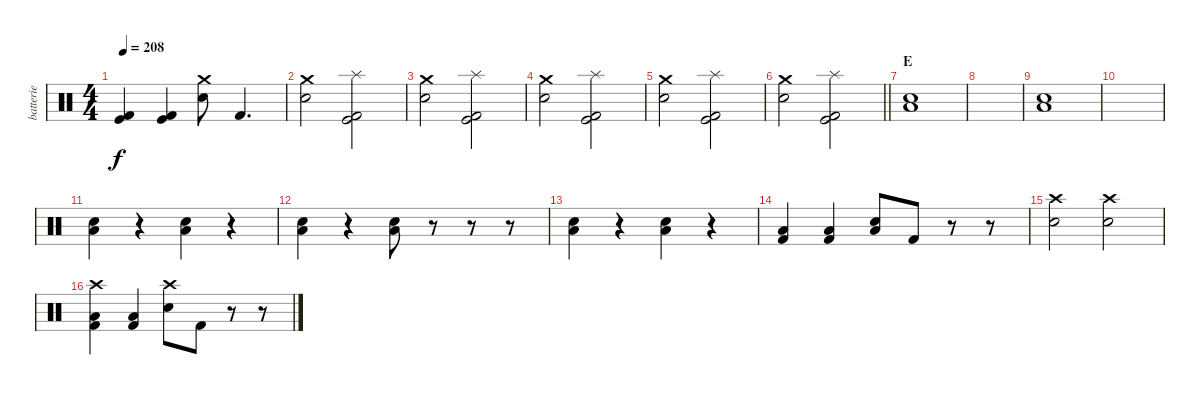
\track ("batterie" "batterie") {instrument percussion}
\staff {score}
\articulation defaults
\ts (4 4)
\tempo 208
\clef neutral
\ks c
("Kick (hit)" "Kick (hit) 2").4{dy f} ("Kick (hit)" "Kick (hit) 2").4 ("Crash medium (hit)" "Snare (hit) 2").8 "Kick (hit) 2".4{d} |
("Snare (hit) 2" "Crash medium (hit)").2 ("Splash (hit)" "Kick (hit)" "Kick (hit) 2").2 |
("Snare (hit) 2" "Crash medium (hit)").2 ("Splash (hit)" "Kick (hit)" "Kick (hit) 2").2 |
("Snare (hit) 2" "Crash medium (hit)").2 ("Splash (hit)" "Kick (hit)" "Kick (hit) 2").2 |
("Snare (hit) 2" "Crash medium (hit)").2 ("Splash (hit)" "Kick (hit)" "Kick (hit) 2").2 |
\barLineRight lightlight
("Snare (hit) 2" "Crash medium (hit)").2 ("Splash (hit)" "Kick (hit)" "Kick (hit) 2").2 |
\section ("" "E")
("Low Floor Tom (hit)" "Electric Snare (hit)").1 |
|
("Low Floor Tom (hit)" "Electric Snare (hit)").1 |
|
("Low Floor Tom (hit)" "Electric Snare (hit)").4 r.4 ("Low Floor Tom (hit)" "Electric Snare (hit)").4 r.4 |
("Low Floor Tom (hit)" "Electric Snare (hit)").4 r.4 ("Low Floor Tom (hit)" "Electric Snare (hit)").8 r.8 r.8 r.8 |
("Low Floor Tom (hit)" "Electric Snare (hit)").4 r.4 ("Low Floor Tom (hit)" "Electric Snare (hit)").4 r.4 |
("Low Floor Tom (hit)" "Kick (hit) 2").4 ("Low Floor Tom (hit)" "Kick (hit) 2").4 ("Low Floor Tom (hit)" "Electric Snare (hit)").8 "Kick (hit) 2".8 r.8 r.8 |
("Snare (hit) 2" "Crash high (hit)").2 ("Snare (hit) 2" "Crash high (hit)").2 |
("Low Floor Tom (hit)" "Crash high (hit)" "Kick (hit) 2").4 ("Low Floor Tom (hit)" "Kick (hit) 2").4 ("Crash high (hit)" "Electric Snare (hit)").8 "Kick (hit) 2".8 r.8 r.8
